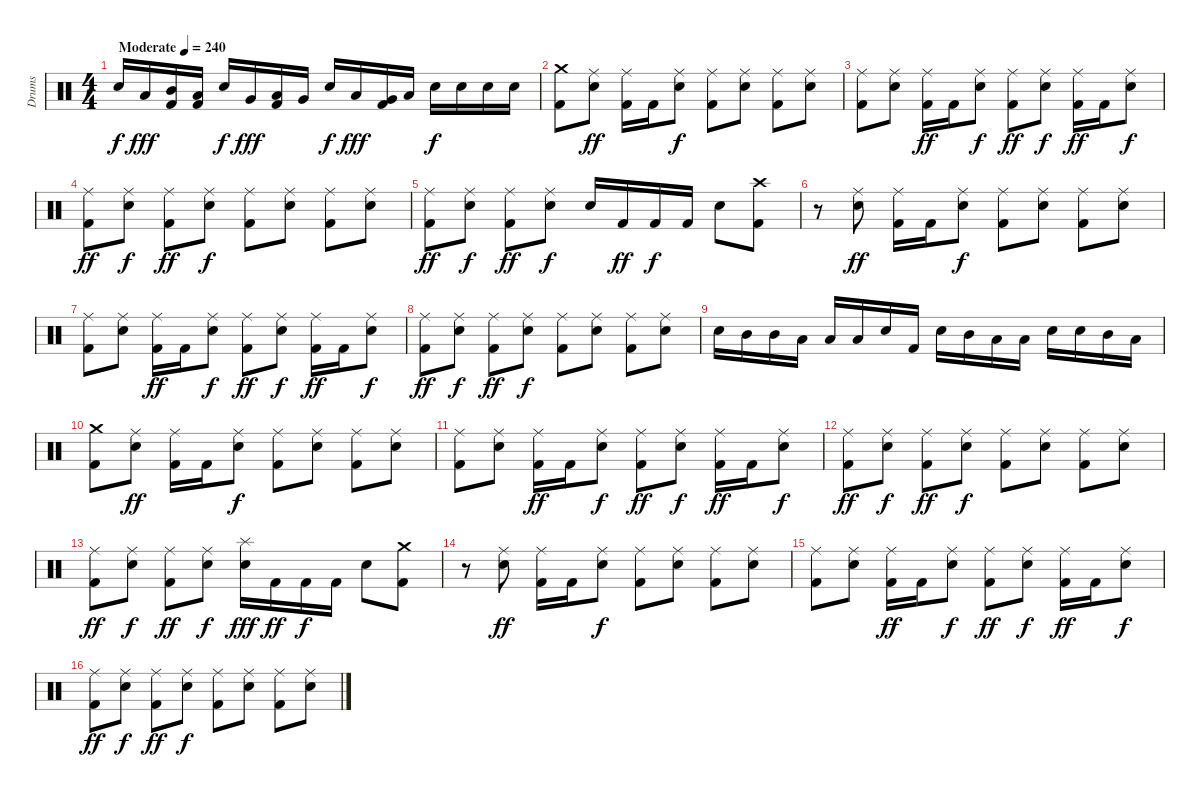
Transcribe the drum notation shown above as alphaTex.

\track ("Drums" "Drums") {instrument percussion}
\staff {score}
\articulation defaults
\ts (4 4)
\tempo (240 "Moderate")
\clef neutral
\ks c "Electric Snare (hit)".16{dy f} "Low Tom (hit)".16{dy fff}
("Mid Tom (hit)" "Kick (hit) 2").16 ("Low Tom (hit)" "Kick (hit) 2").16 "Electric Snare (hit)".16{dy f} "Very Low Tom (hit)".16{dy fff} ("Low Tom (hit)" "Kick (hit) 2").16 "Very Low Tom (hit)".16 "Electric Snare (hit)".16{dy f} "Low Tom (hit)".16{dy fff} ("Very Low Tom (hit)" "Kick (hit) 2").16 "Low Tom (hit)".16 "Electric Snare (hit)".16{dy f} "Electric Snare (hit)".16 "Electric Snare (hit)".16 "Electric Snare (hit)".16 |
("Crash medium (hit)" "Kick (hit) 2").8 ("Ride (middle)" "Electric Snare (hit)").8{dy ff} ("Ride (middle)" "Kick (hit) 2").16 "Kick (hit) 2".16 ("Ride (middle)" "Electric Snare (hit)").8{dy f} ("Ride (middle)" "Kick (hit) 2").8 ("Ride (middle)" "Electric Snare (hit)").8 ("Ride (middle)" "Kick (hit) 2").8 ("Ride (middle)" "Electric Snare (hit)").8 |
("Ride (middle)" "Kick (hit) 2").8 ("Ride (middle)" "Electric Snare (hit)").8 ("Ride (middle)" "Kick (hit) 2").16{dy ff} "Kick (hit) 2".16 ("Ride (middle)" "Electric Snare (hit)").8{dy f} ("Ride (middle)" "Kick (hit) 2").8{dy ff} ("Ride (middle)" "Electric Snare (hit)").8{dy f} ("Ride (middle)" "Kick (hit) 2").16{dy ff} "Kick (hit) 2".16 ("Ride (middle)" "Electric Snare (hit)").8{dy f} |
("Ride (middle)" "Kick (hit) 2").8{dy ff} ("Ride (middle)" "Electric Snare (hit)").8{dy f} ("Ride (middle)" "Kick (hit) 2").8{dy ff} ("Ride (middle)" "Electric Snare (hit)").8{dy f} ("Ride (middle)" "Kick (hit) 2").8 ("Ride (middle)" "Electric Snare (hit)").8 ("Ride (middle)" "Kick (hit) 2").8 ("Ride (middle)" "Electric Snare (hit)").8 |
("Ride (middle)" "Kick (hit) 2").8{dy ff} ("Ride (middle)" "Electric Snare (hit)").8{dy f} ("Ride (middle)" "Kick (hit) 2").8{dy ff} ("Ride (middle)" "Electric Snare (hit)").8{dy f} "Electric Snare (hit)".16 "Kick (hit) 2".16{dy ff} "Kick (hit) 2".16{dy f} "Kick (hit) 2".16 "Electric Snare (hit)".8 ("Crash high (hit)" "Kick (hit) 2").8 |
r.8 ("Ride (middle)" "Electric Snare (hit)").8{dy ff} ("Ride (middle)" "Kick (hit) 2").16 "Kick (hit) 2".16 ("Ride (middle)" "Electric Snare (hit)").8{dy f} ("Ride (middle)" "Kick (hit) 2").8 ("Ride (middle)" "Electric Snare (hit)").8 ("Ride (middle)" "Kick (hit) 2").8 ("Ride (middle)" "Electric Snare (hit)").8 |
("Ride (middle)" "Kick (hit) 2").8 ("Ride (middle)" "Electric Snare (hit)").8 ("Ride (middle)" "Kick (hit) 2").16{dy ff} "Kick (hit) 2".16 ("Ride (middle)" "Electric Snare (hit)").8{dy f} ("Ride (middle)" "Kick (hit) 2").8{dy ff} ("Ride (middle)" "Electric Snare (hit)").8{dy f} ("Ride (middle)" "Kick (hit) 2").16{dy ff} "Kick (hit) 2".16 ("Ride (middle)" "Electric Snare (hit)").8{dy f} |
("Ride (middle)" "Kick (hit) 2").8{dy ff} ("Ride (middle)" "Electric Snare (hit)").8{dy f} ("Ride (middle)" "Kick (hit) 2").8{dy ff} ("Ride (middle)" "Electric Snare (hit)").8{dy f} ("Ride (middle)" "Kick (hit) 2").8 ("Ride (middle)" "Electric Snare (hit)").8 ("Ride (middle)" "Kick (hit) 2").8 ("Ride (middle)" "Electric Snare (hit)").8 |
"Electric Snare (hit)".16 "Mid Tom (hit)".16 "Mid Tom (hit)".16 "Low Tom (hit)".16 "Low Tom (hit)".16 "Low Tom (hit)".16 "Electric Snare (hit)".16 "Kick (hit) 2".16 "Electric Snare (hit)".16 "Mid Tom (hit)".16 "Low Tom (hit)".16 "Low Tom (hit)".16 "Electric Snare (hit)".16 "Electric Snare (hit)".16 "Mid Tom (hit)".16 "Low Tom (hit)".16 |
("Crash medium (hit)" "Kick (hit) 2").8 ("Ride (middle)" "Electric Snare (hit)").8{dy ff} ("Ride (middle)" "Kick (hit) 2").16 "Kick (hit) 2".16 ("Ride (middle)" "Electric Snare (hit)").8{dy f} ("Ride (middle)" "Kick (hit) 2").8 ("Ride (middle)" "Electric Snare (hit)").8 ("Ride (middle)" "Kick (hit) 2").8 ("Ride (middle)" "Electric Snare (hit)").8 |
("Ride (middle)" "Kick (hit) 2").8 ("Ride (middle)" "Electric Snare (hit)").8 ("Ride (middle)" "Kick (hit) 2").16{dy ff} "Kick (hit) 2".16 ("Ride (middle)" "Electric Snare (hit)").8{dy f} ("Ride (middle)" "Kick (hit) 2").8{dy ff} ("Ride (middle)" "Electric Snare (hit)").8{dy f} ("Ride (middle)" "Kick (hit) 2").16{dy ff} "Kick (hit) 2".16 ("Ride (middle)" "Electric Snare (hit)").8{dy f} |
("Ride (middle)" "Kick (hit) 2").8{dy ff} ("Ride (middle)" "Electric Snare (hit)").8{dy f} ("Ride (middle)" "Kick (hit) 2").8{dy ff} ("Ride (middle)" "Electric Snare (hit)").8{dy f} ("Ride (middle)" "Kick (hit) 2").8 ("Ride (middle)" "Electric Snare (hit)").8 ("Ride (middle)" "Kick (hit) 2").8 ("Ride (middle)" "Electric Snare (hit)").8 |
("Ride (middle)" "Kick (hit) 2").8{dy ff} ("Ride (middle)" "Electric Snare (hit)").8{dy f} ("Ride (middle)" "Kick (hit) 2").8{dy ff} ("Ride (middle)" "Electric Snare (hit)").8{dy f} ("Splash (hit)" "Electric Snare (hit)").16{dy fff} "Kick (hit) 2".16{dy ff} "Kick (hit) 2".16{dy f} "Kick (hit) 2".16 "Electric Snare (hit)".8 ("Crash medium (hit)" "Kick (hit) 2").8 |
r.8 ("Ride (middle)" "Electric Snare (hit)").8{dy ff} ("Ride (middle)" "Kick (hit) 2").16 "Kick (hit) 2".16 ("Ride (middle)" "Electric Snare (hit)").8{dy f} ("Ride (middle)" "Kick (hit) 2").8 ("Ride (middle)" "Electric Snare (hit)").8 ("Ride (middle)" "Kick (hit) 2").8 ("Ride (middle)" "Electric Snare (hit)").8 |
("Ride (middle)" "Kick (hit) 2").8 ("Ride (middle)" "Electric Snare (hit)").8 ("Ride (middle)" "Kick (hit) 2").16{dy ff} "Kick (hit) 2".16 ("Ride (middle)" "Electric Snare (hit)").8{dy f} ("Ride (middle)" "Kick (hit) 2").8{dy ff} ("Ride (middle)" "Electric Snare (hit)").8{dy f} ("Ride (middle)" "Kick (hit) 2").16{dy ff} "Kick (hit) 2".16 ("Ride (middle)" "Electric Snare (hit)").8{dy f} |
("Ride (middle)" "Kick (hit) 2").8{dy ff} ("Ride (middle)" "Electric Snare (hit)").8{dy f} ("Ride (middle)" "Kick (hit) 2").8{dy ff} ("Ride (middle)" "Electric Snare (hit)").8{dy f} ("Ride (middle)" "Kick (hit) 2").8 ("Ride (middle)" "Electric Snare (hit)").8 ("Ride (middle)" "Kick (hit) 2").8 ("Ride (middle)" "Electric Snare (hit)").8
